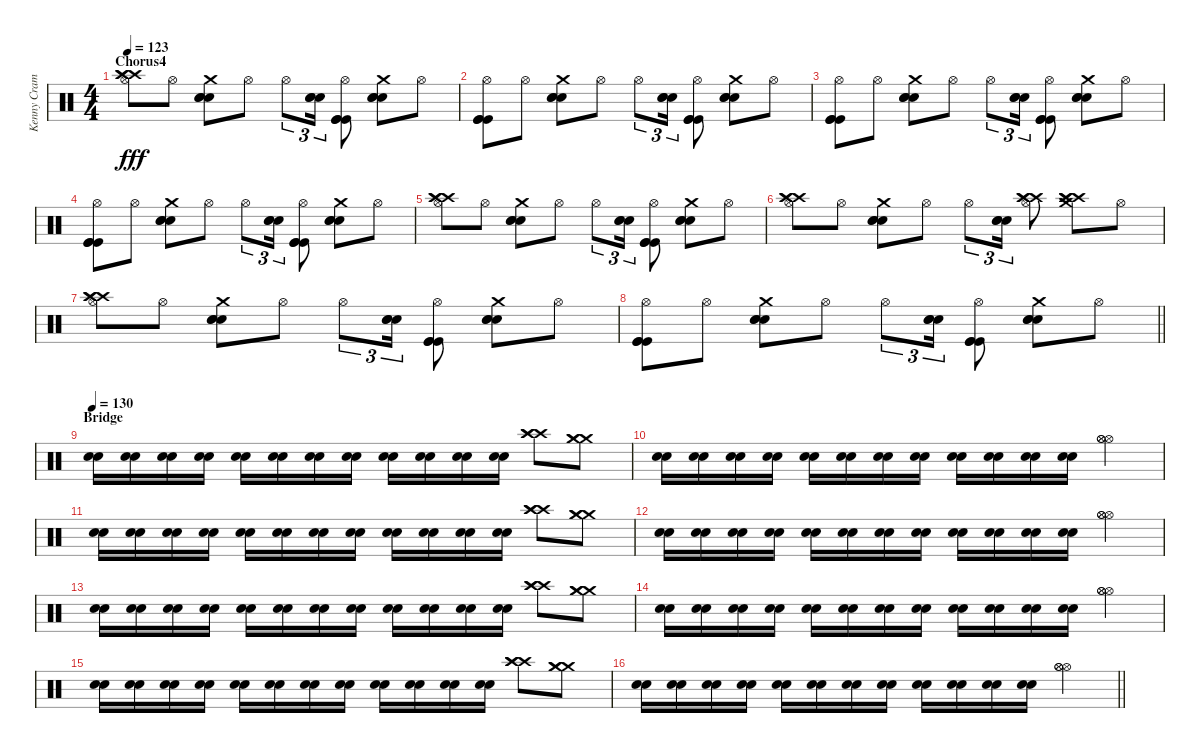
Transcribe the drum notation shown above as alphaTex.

\track ("Kenny Cramme - Drums" "Kenny Cram") {instrument percussion}
\staff {score}
\articulation defaults
\ts (4 4)
\section ("" "Chorus4")
\tempo 123
\clef neutral
\ks c
("Hi-Hat (open)" "Crash high (hit)" "Crash high (hit)" "Crash high (hit)").8{dy fff} "Hi-Hat (open)".8 ("Crash medium (hit)" "Snare (hit) 2" "Snare (hit) 2" "Snare (hit) 2").8 "Hi-Hat (open)".8 "Hi-Hat (open)".8{tu (3 2)} ("Snare (hit) 2" "Snare (hit) 2" "Snare (hit) 2").16{tu (3 2)} ("Hi-Hat (open)" "Kick (hit)" "Kick (hit)" "Kick (hit)").8 ("Crash medium (hit)" "Snare (hit) 2" "Snare (hit) 2" "Snare (hit) 2").8 "Hi-Hat (open)".8 |
("Hi-Hat (open)" "Kick (hit)" "Kick (hit)" "Kick (hit)").8 "Hi-Hat (open)".8 ("Crash medium (hit)" "Snare (hit) 2" "Snare (hit) 2" "Snare (hit) 2").8 "Hi-Hat (open)".8 "Hi-Hat (open)".8{tu (3 2)} ("Snare (hit) 2" "Snare (hit) 2" "Snare (hit) 2").16{tu (3 2)} ("Hi-Hat (open)" "Kick (hit)" "Kick (hit)" "Kick (hit)").8 ("Crash medium (hit)" "Snare (hit) 2" "Snare (hit) 2" "Snare (hit) 2").8 "Hi-Hat (open)".8 |
("Hi-Hat (open)" "Kick (hit)" "Kick (hit)" "Kick (hit)").8 "Hi-Hat (open)".8 ("Crash medium (hit)" "Snare (hit) 2" "Snare (hit) 2" "Snare (hit) 2").8 "Hi-Hat (open)".8 "Hi-Hat (open)".8{tu (3 2)} ("Snare (hit) 2" "Snare (hit) 2" "Snare (hit) 2").16{tu (3 2)} ("Hi-Hat (open)" "Kick (hit)" "Kick (hit)" "Kick (hit)").8 ("Crash medium (hit)" "Snare (hit) 2" "Snare (hit) 2" "Snare (hit) 2").8 "Hi-Hat (open)".8 |
("Hi-Hat (open)" "Kick (hit)" "Kick (hit)" "Kick (hit)").8 "Hi-Hat (open)".8 ("Crash medium (hit)" "Snare (hit) 2" "Snare (hit) 2" "Snare (hit) 2").8 "Hi-Hat (open)".8 "Hi-Hat (open)".8{tu (3 2)} ("Snare (hit) 2" "Snare (hit) 2" "Snare (hit) 2").16{tu (3 2)} ("Hi-Hat (open)" "Kick (hit)" "Kick (hit)" "Kick (hit)").8 ("Crash medium (hit)" "Snare (hit) 2" "Snare (hit) 2" "Snare (hit) 2").8 "Hi-Hat (open)".8 |
("Hi-Hat (open)" "Crash high (hit)" "Crash high (hit)" "Crash high (hit)").8 "Hi-Hat (open)".8 ("Crash medium (hit)" "Snare (hit) 2" "Snare (hit) 2" "Snare (hit) 2").8 "Hi-Hat (open)".8 "Hi-Hat (open)".8{tu (3 2)} ("Snare (hit) 2" "Snare (hit) 2" "Snare (hit) 2").16{tu (3 2)} ("Hi-Hat (open)" "Kick (hit)" "Kick (hit)" "Kick (hit)").8 ("Crash medium (hit)" "Snare (hit) 2" "Snare (hit) 2" "Snare (hit) 2").8 "Hi-Hat (open)".8 |
("Hi-Hat (open)" "Crash high (hit)" "Crash high (hit)" "Crash high (hit)").8 "Hi-Hat (open)".8 ("Crash medium (hit)" "Snare (hit) 2" "Snare (hit) 2" "Snare (hit) 2").8 "Hi-Hat (open)".8 "Hi-Hat (open)".8{tu (3 2)} ("Snare (hit) 2" "Snare (hit) 2" "Snare (hit) 2").16{tu (3 2)} ("Hi-Hat (open)" "Crash high (hit)" "Crash high (hit)" "Crash high (hit)").8 ("Crash medium (hit)" "Crash high (hit)" "Crash high (hit)" "Crash high (hit)").8 "Hi-Hat (open)".8 |
("Hi-Hat (open)" "Crash high (hit)" "Crash high (hit)" "Crash high (hit)").8 "Hi-Hat (open)".8 ("Crash medium (hit)" "Snare (hit) 2" "Snare (hit) 2" "Snare (hit) 2").8 "Hi-Hat (open)".8 "Hi-Hat (open)".8{tu (3 2)} ("Snare (hit) 2" "Snare (hit) 2" "Snare (hit) 2").16{tu (3 2)} ("Hi-Hat (open)" "Kick (hit)" "Kick (hit)" "Kick (hit)").8 ("Crash medium (hit)" "Snare (hit) 2" "Snare (hit) 2" "Snare (hit) 2").8 "Hi-Hat (open)".8 |
\barLineRight lightlight
("Hi-Hat (open)" "Kick (hit)" "Kick (hit)" "Kick (hit)").8 "Hi-Hat (open)".8 ("Crash medium (hit)" "Snare (hit) 2" "Snare (hit) 2" "Snare (hit) 2").8 "Hi-Hat (open)".8 "Hi-Hat (open)".8{tu (3 2)} ("Snare (hit) 2" "Snare (hit) 2" "Snare (hit) 2").16{tu (3 2)} ("Hi-Hat (open)" "Kick (hit)" "Kick (hit)" "Kick (hit)").8 ("Crash medium (hit)" "Snare (hit) 2" "Snare (hit) 2" "Snare (hit) 2").8 "Hi-Hat (open)".8 |
\section ("" "Bridge")
\tempo 130
("Snare (hit) 2" "Snare (hit) 2").16 ("Snare (hit) 2" "Snare (hit) 2").16 ("Snare (hit) 2" "Snare (hit) 2").16 ("Snare (hit) 2" "Snare (hit) 2").16 ("Snare (hit) 2" "Snare (hit) 2").16 ("Snare (hit) 2" "Snare (hit) 2").16 ("Snare (hit) 2" "Snare (hit) 2").16 ("Snare (hit) 2" "Snare (hit) 2").16 ("Snare (hit) 2" "Snare (hit) 2").16 ("Snare (hit) 2" "Snare (hit) 2").16 ("Snare (hit) 2" "Snare (hit) 2").16 ("Snare (hit) 2" "Snare (hit) 2").16 ("Crash high (hit)" "Crash high (hit)" "Crash high (hit)").8 ("Crash medium (hit)" "Crash medium (hit)" "Crash medium (hit)").8 |
("Snare (hit) 2" "Snare (hit) 2").16 ("Snare (hit) 2" "Snare (hit) 2").16 ("Snare (hit) 2" "Snare (hit) 2").16 ("Snare (hit) 2" "Snare (hit) 2").16 ("Snare (hit) 2" "Snare (hit) 2").16 ("Snare (hit) 2" "Snare (hit) 2").16 ("Snare (hit) 2" "Snare (hit) 2").16 ("Snare (hit) 2" "Snare (hit) 2").16 ("Snare (hit) 2" "Snare (hit) 2").16 ("Snare (hit) 2" "Snare (hit) 2").16 ("Snare (hit) 2" "Snare (hit) 2").16 ("Snare (hit) 2" "Snare (hit) 2").16 ("Hi-Hat (open)" "Hi-Hat (open)" "Hi-Hat (open)").4 |
("Snare (hit) 2" "Snare (hit) 2").16 ("Snare (hit) 2" "Snare (hit) 2").16 ("Snare (hit) 2" "Snare (hit) 2").16 ("Snare (hit) 2" "Snare (hit) 2").16 ("Snare (hit) 2" "Snare (hit) 2").16 ("Snare (hit) 2" "Snare (hit) 2").16 ("Snare (hit) 2" "Snare (hit) 2").16 ("Snare (hit) 2" "Snare (hit) 2").16 ("Snare (hit) 2" "Snare (hit) 2").16 ("Snare (hit) 2" "Snare (hit) 2").16 ("Snare (hit) 2" "Snare (hit) 2").16 ("Snare (hit) 2" "Snare (hit) 2").16 ("Crash high (hit)" "Crash high (hit)" "Crash high (hit)").8 ("Crash medium (hit)" "Crash medium (hit)" "Crash medium (hit)").8 |
("Snare (hit) 2" "Snare (hit) 2").16 ("Snare (hit) 2" "Snare (hit) 2").16 ("Snare (hit) 2" "Snare (hit) 2").16 ("Snare (hit) 2" "Snare (hit) 2").16 ("Snare (hit) 2" "Snare (hit) 2").16 ("Snare (hit) 2" "Snare (hit) 2").16 ("Snare (hit) 2" "Snare (hit) 2").16 ("Snare (hit) 2" "Snare (hit) 2").16 ("Snare (hit) 2" "Snare (hit) 2").16 ("Snare (hit) 2" "Snare (hit) 2").16 ("Snare (hit) 2" "Snare (hit) 2").16 ("Snare (hit) 2" "Snare (hit) 2").16 ("Hi-Hat (open)" "Hi-Hat (open)" "Hi-Hat (open)").4 |
("Snare (hit) 2" "Snare (hit) 2").16 ("Snare (hit) 2" "Snare (hit) 2").16 ("Snare (hit) 2" "Snare (hit) 2").16 ("Snare (hit) 2" "Snare (hit) 2").16 ("Snare (hit) 2" "Snare (hit) 2").16 ("Snare (hit) 2" "Snare (hit) 2").16 ("Snare (hit) 2" "Snare (hit) 2").16 ("Snare (hit) 2" "Snare (hit) 2").16 ("Snare (hit) 2" "Snare (hit) 2").16 ("Snare (hit) 2" "Snare (hit) 2").16 ("Snare (hit) 2" "Snare (hit) 2").16 ("Snare (hit) 2" "Snare (hit) 2").16 ("Crash high (hit)" "Crash high (hit)" "Crash high (hit)").8 ("Crash medium (hit)" "Crash medium (hit)" "Crash medium (hit)").8 |
("Snare (hit) 2" "Snare (hit) 2").16 ("Snare (hit) 2" "Snare (hit) 2").16 ("Snare (hit) 2" "Snare (hit) 2").16 ("Snare (hit) 2" "Snare (hit) 2").16 ("Snare (hit) 2" "Snare (hit) 2").16 ("Snare (hit) 2" "Snare (hit) 2").16 ("Snare (hit) 2" "Snare (hit) 2").16 ("Snare (hit) 2" "Snare (hit) 2").16 ("Snare (hit) 2" "Snare (hit) 2").16 ("Snare (hit) 2" "Snare (hit) 2").16 ("Snare (hit) 2" "Snare (hit) 2").16 ("Snare (hit) 2" "Snare (hit) 2").16 ("Hi-Hat (open)" "Hi-Hat (open)" "Hi-Hat (open)").4 |
("Snare (hit) 2" "Snare (hit) 2").16 ("Snare (hit) 2" "Snare (hit) 2").16 ("Snare (hit) 2" "Snare (hit) 2").16 ("Snare (hit) 2" "Snare (hit) 2").16 ("Snare (hit) 2" "Snare (hit) 2").16 ("Snare (hit) 2" "Snare (hit) 2").16 ("Snare (hit) 2" "Snare (hit) 2").16 ("Snare (hit) 2" "Snare (hit) 2").16 ("Snare (hit) 2" "Snare (hit) 2").16 ("Snare (hit) 2" "Snare (hit) 2").16 ("Snare (hit) 2" "Snare (hit) 2").16 ("Snare (hit) 2" "Snare (hit) 2").16 ("Crash high (hit)" "Crash high (hit)" "Crash high (hit)").8 ("Crash medium (hit)" "Crash medium (hit)" "Crash medium (hit)").8 |
\barLineRight lightlight
("Snare (hit) 2" "Snare (hit) 2").16 ("Snare (hit) 2" "Snare (hit) 2").16 ("Snare (hit) 2" "Snare (hit) 2").16 ("Snare (hit) 2" "Snare (hit) 2").16 ("Snare (hit) 2" "Snare (hit) 2").16 ("Snare (hit) 2" "Snare (hit) 2").16 ("Snare (hit) 2" "Snare (hit) 2").16 ("Snare (hit) 2" "Snare (hit) 2").16 ("Snare (hit) 2" "Snare (hit) 2").16 ("Snare (hit) 2" "Snare (hit) 2").16 ("Snare (hit) 2" "Snare (hit) 2").16 ("Snare (hit) 2" "Snare (hit) 2").16 ("Hi-Hat (open)" "Hi-Hat (open)" "Hi-Hat (open)").4
